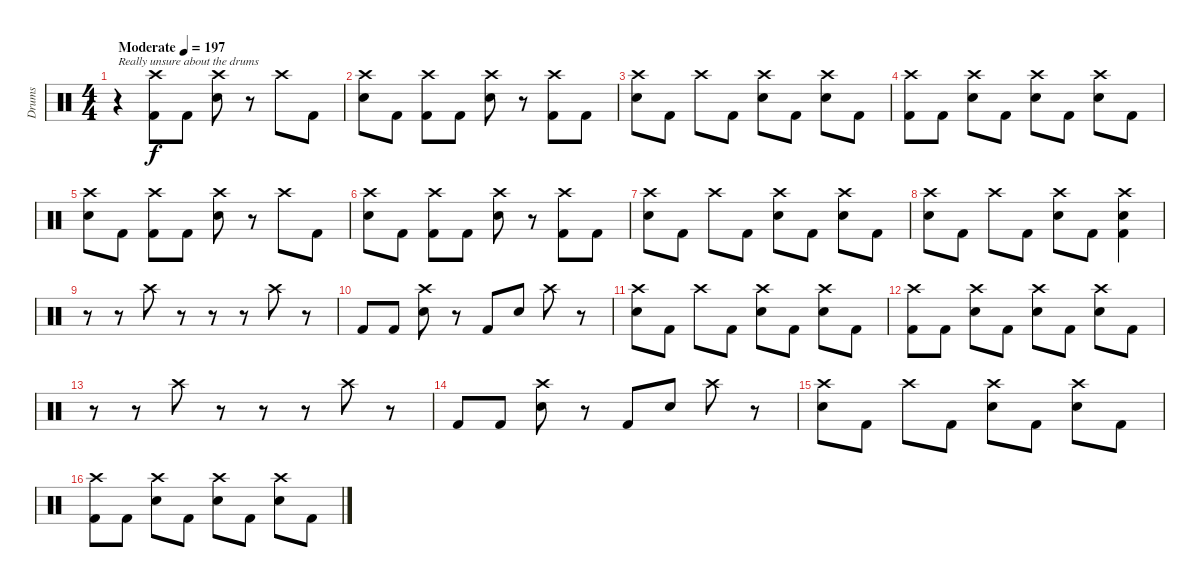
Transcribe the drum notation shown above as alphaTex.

\track ("Drums" "Drums") {instrument percussion}
\staff {score}
\articulation defaults
\ts (4 4)
\tempo (197 "Moderate")
\clef neutral
\ks c
r.4{txt "Really unsure about the drums" dy f} ("Crash high (hit)" "Kick (hit) 2").8 "Kick (hit) 2".8 ("Crash high (hit)" "Electric Snare (hit)").8 r.8 "Crash high (hit)".8 "Kick (hit) 2".8 |
("Crash high (hit)" "Electric Snare (hit)").8 "Kick (hit) 2".8 ("Crash high (hit)" "Kick (hit) 2").8 "Kick (hit) 2".8 ("Crash high (hit)" "Electric Snare (hit)").8 r.8 ("Crash high (hit)" "Kick (hit) 2").8 "Kick (hit) 2".8 |
("Crash high (hit)" "Electric Snare (hit)").8 "Kick (hit) 2".8 "Crash high (hit)".8 "Kick (hit) 2".8 ("Crash high (hit)" "Electric Snare (hit)").8 "Kick (hit) 2".8 ("Crash high (hit)" "Electric Snare (hit)").8 "Kick (hit) 2".8 |
("Crash high (hit)" "Kick (hit) 2").8 "Kick (hit) 2".8 ("Crash high (hit)" "Electric Snare (hit)").8 "Kick (hit) 2".8 ("Crash high (hit)" "Electric Snare (hit)").8 "Kick (hit) 2".8 ("Crash high (hit)" "Electric Snare (hit)").8 "Kick (hit) 2".8 |
("Crash high (hit)" "Electric Snare (hit)").8 "Kick (hit) 2".8 ("Crash high (hit)" "Kick (hit) 2").8 "Kick (hit) 2".8 ("Crash high (hit)" "Electric Snare (hit)").8 r.8 "Crash high (hit)".8 "Kick (hit) 2".8 |
("Crash high (hit)" "Electric Snare (hit)").8 "Kick (hit) 2".8 ("Crash high (hit)" "Kick (hit) 2").8 "Kick (hit) 2".8 ("Crash high (hit)" "Electric Snare (hit)").8 r.8 ("Crash high (hit)" "Kick (hit) 2").8 "Kick (hit) 2".8 |
("Crash high (hit)" "Electric Snare (hit)").8 "Kick (hit) 2".8 "Crash high (hit)".8 "Kick (hit) 2".8 ("Crash high (hit)" "Electric Snare (hit)").8 "Kick (hit) 2".8 ("Crash high (hit)" "Electric Snare (hit)").8 "Kick (hit) 2".8 |
("Crash high (hit)" "Electric Snare (hit)").8 "Kick (hit) 2".8 "Crash high (hit)".8 "Kick (hit) 2".8 ("Crash high (hit)" "Electric Snare (hit)").8 "Kick (hit) 2".8 ("Crash high (hit)" "Electric Snare (hit)" "Kick (hit) 2").4 |
r.8 r.8 "Crash high (hit)".8 r.8 r.8 r.8 "Crash high (hit)".8 r.8 |
"Kick (hit) 2".8 "Kick (hit) 2".8 ("Crash high (hit)" "Electric Snare (hit)").8 r.8 "Kick (hit) 2".8 "Electric Snare (hit)".8 "Crash high (hit)".8 r.8 |
("Crash high (hit)" "Electric Snare (hit)").8 "Kick (hit) 2".8 "Crash high (hit)".8 "Kick (hit) 2".8 ("Crash high (hit)" "Electric Snare (hit)").8 "Kick (hit) 2".8 ("Crash high (hit)" "Electric Snare (hit)").8 "Kick (hit) 2".8 |
("Crash high (hit)" "Kick (hit) 2").8 "Kick (hit) 2".8 ("Crash high (hit)" "Electric Snare (hit)").8 "Kick (hit) 2".8 ("Crash high (hit)" "Electric Snare (hit)").8 "Kick (hit) 2".8 ("Crash high (hit)" "Electric Snare (hit)").8 "Kick (hit) 2".8 |
r.8 r.8 "Crash high (hit)".8 r.8 r.8 r.8 "Crash high (hit)".8 r.8 |
"Kick (hit) 2".8 "Kick (hit) 2".8 ("Crash high (hit)" "Electric Snare (hit)").8 r.8 "Kick (hit) 2".8 "Electric Snare (hit)".8 "Crash high (hit)".8 r.8 |
("Crash high (hit)" "Electric Snare (hit)").8 "Kick (hit) 2".8 "Crash high (hit)".8 "Kick (hit) 2".8 ("Crash high (hit)" "Electric Snare (hit)").8 "Kick (hit) 2".8 ("Crash high (hit)" "Electric Snare (hit)").8 "Kick (hit) 2".8 |
("Crash high (hit)" "Kick (hit) 2").8 "Kick (hit) 2".8 ("Crash high (hit)" "Electric Snare (hit)").8 "Kick (hit) 2".8 ("Crash high (hit)" "Electric Snare (hit)").8 "Kick (hit) 2".8 ("Crash high (hit)" "Electric Snare (hit)").8 "Kick (hit) 2".8
